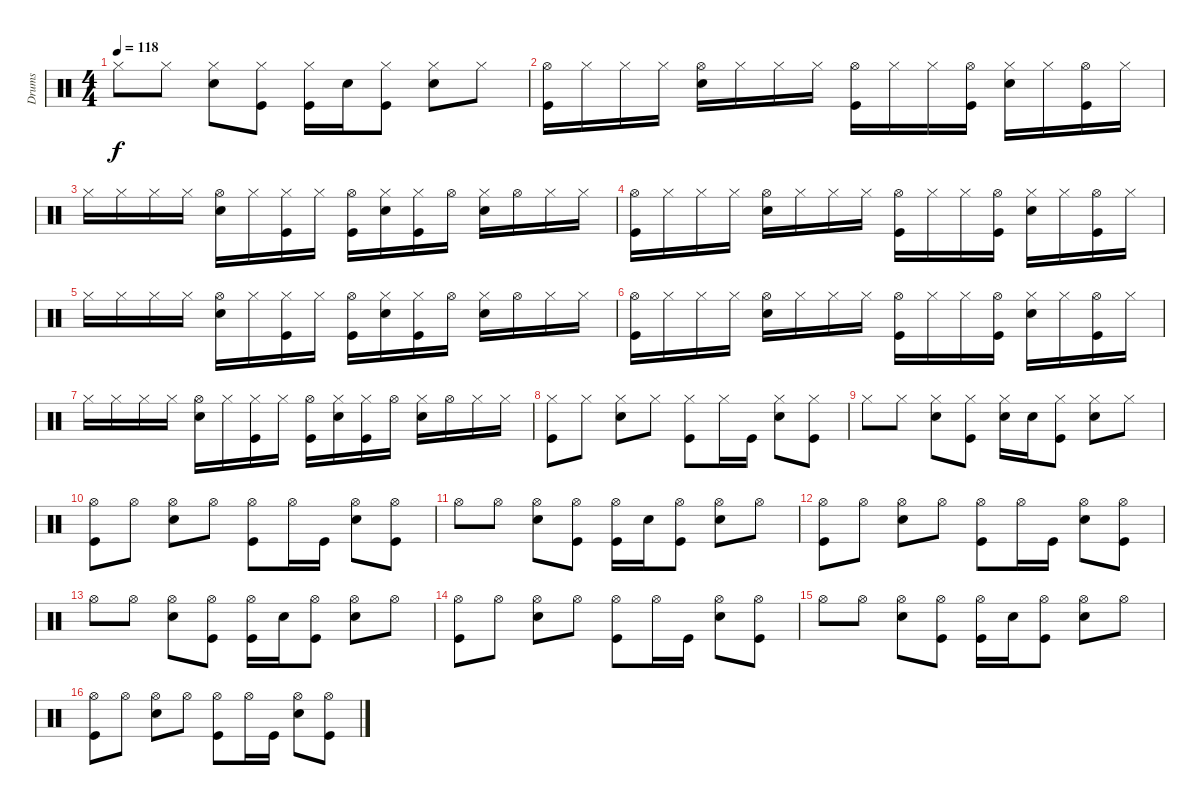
\track ("Drums" "Drums") {instrument percussion}
\staff {score}
\articulation defaults
\ts (4 4)
\tempo 118
\clef neutral
\ks c "Hi-Hat (closed)".8{dy f} "Hi-Hat (closed)".8
("Hi-Hat (closed)" "Snare (hit) 2").8 ("Hi-Hat (closed)" "Kick (hit)").8 ("Hi-Hat (closed)" "Kick (hit)").16 "Snare (hit) 2".16 ("Hi-Hat (closed)" "Kick (hit)").8 ("Hi-Hat (closed)" "Snare (hit) 2").8 "Hi-Hat (closed)".8 |
("Hi-Hat (open)" "Kick (hit)").16 "Hi-Hat (closed)".16 "Hi-Hat (closed)".16 "Hi-Hat (closed)".16 ("Hi-Hat (open)" "Snare (hit) 2").16 "Hi-Hat (closed)".16 "Hi-Hat (closed)".16 "Hi-Hat (closed)".16 ("Hi-Hat (open)" "Kick (hit)").16 "Hi-Hat (closed)".16 "Hi-Hat (closed)".16 ("Hi-Hat (open)" "Kick (hit)").16 ("Hi-Hat (closed)" "Snare (hit) 2").16 "Hi-Hat (closed)".16 ("Hi-Hat (open)" "Kick (hit)").16 "Hi-Hat (closed)".16 |
"Hi-Hat (closed)".16 "Hi-Hat (closed)".16 "Hi-Hat (closed)".16 "Hi-Hat (closed)".16 ("Hi-Hat (open)" "Snare (hit) 2").16 "Hi-Hat (closed)".16 ("Hi-Hat (closed)" "Kick (hit)").16 "Hi-Hat (closed)".16 ("Hi-Hat (open)" "Kick (hit)").16 ("Hi-Hat (closed)" "Snare (hit) 2").16 ("Hi-Hat (closed)" "Kick (hit)").16 "Hi-Hat (open)".16 ("Hi-Hat (closed)" "Snare (hit) 2").16 "Hi-Hat (open)".16 "Hi-Hat (closed)".16 "Hi-Hat (closed)".16 |
("Hi-Hat (open)" "Kick (hit)").16 "Hi-Hat (closed)".16 "Hi-Hat (closed)".16 "Hi-Hat (closed)".16 ("Hi-Hat (open)" "Snare (hit) 2").16 "Hi-Hat (closed)".16 "Hi-Hat (closed)".16 "Hi-Hat (closed)".16 ("Hi-Hat (open)" "Kick (hit)").16 "Hi-Hat (closed)".16 "Hi-Hat (closed)".16 ("Hi-Hat (open)" "Kick (hit)").16 ("Hi-Hat (closed)" "Snare (hit) 2").16 "Hi-Hat (closed)".16 ("Hi-Hat (open)" "Kick (hit)").16 "Hi-Hat (closed)".16 |
"Hi-Hat (closed)".16 "Hi-Hat (closed)".16 "Hi-Hat (closed)".16 "Hi-Hat (closed)".16 ("Hi-Hat (open)" "Snare (hit) 2").16 "Hi-Hat (closed)".16 ("Hi-Hat (closed)" "Kick (hit)").16 "Hi-Hat (closed)".16 ("Hi-Hat (open)" "Kick (hit)").16 ("Hi-Hat (closed)" "Snare (hit) 2").16 ("Hi-Hat (closed)" "Kick (hit)").16 "Hi-Hat (open)".16 ("Hi-Hat (closed)" "Snare (hit) 2").16 "Hi-Hat (open)".16 "Hi-Hat (closed)".16 "Hi-Hat (closed)".16 |
("Hi-Hat (open)" "Kick (hit)").16 "Hi-Hat (closed)".16 "Hi-Hat (closed)".16 "Hi-Hat (closed)".16 ("Hi-Hat (open)" "Snare (hit) 2").16 "Hi-Hat (closed)".16 "Hi-Hat (closed)".16 "Hi-Hat (closed)".16 ("Hi-Hat (open)" "Kick (hit)").16 "Hi-Hat (closed)".16 "Hi-Hat (closed)".16 ("Hi-Hat (open)" "Kick (hit)").16 ("Hi-Hat (closed)" "Snare (hit) 2").16 "Hi-Hat (closed)".16 ("Hi-Hat (open)" "Kick (hit)").16 "Hi-Hat (closed)".16 |
"Hi-Hat (closed)".16 "Hi-Hat (closed)".16 "Hi-Hat (closed)".16 "Hi-Hat (closed)".16 ("Hi-Hat (open)" "Snare (hit) 2").16 "Hi-Hat (closed)".16 ("Hi-Hat (closed)" "Kick (hit)").16 "Hi-Hat (closed)".16 ("Hi-Hat (open)" "Kick (hit)").16 ("Hi-Hat (closed)" "Snare (hit) 2").16 ("Hi-Hat (closed)" "Kick (hit)").16 "Hi-Hat (open)".16 ("Hi-Hat (closed)" "Snare (hit) 2").16 "Hi-Hat (open)".16 "Hi-Hat (closed)".16 "Hi-Hat (closed)".16 |
("Hi-Hat (closed)" "Kick (hit)").8 "Hi-Hat (closed)".8 ("Hi-Hat (closed)" "Snare (hit) 2").8 "Hi-Hat (closed)".8 ("Hi-Hat (closed)" "Kick (hit)").8 "Hi-Hat (closed)".16 "Kick (hit)".16 ("Hi-Hat (closed)" "Snare (hit) 2").8 ("Hi-Hat (closed)" "Kick (hit)").8 |
"Hi-Hat (closed)".8 "Hi-Hat (closed)".8 ("Hi-Hat (closed)" "Snare (hit) 2").8 ("Hi-Hat (closed)" "Kick (hit)").8 ("Hi-Hat (closed)" "Snare (hit) 2").16 "Snare (hit) 2".16 ("Hi-Hat (closed)" "Kick (hit)").8 ("Hi-Hat (closed)" "Snare (hit) 2").8 "Hi-Hat (closed)".8 |
("Hi-Hat (open)" "Kick (hit)").8 "Hi-Hat (open)".8 ("Hi-Hat (open)" "Snare (hit) 2").8 "Hi-Hat (open)".8 ("Hi-Hat (open)" "Kick (hit)").8 "Hi-Hat (open)".16 "Kick (hit)".16 ("Hi-Hat (open)" "Snare (hit) 2").8 ("Hi-Hat (open)" "Kick (hit)").8 |
"Hi-Hat (open)".8 "Hi-Hat (open)".8 ("Hi-Hat (open)" "Snare (hit) 2").8 ("Hi-Hat (open)" "Kick (hit)").8 ("Hi-Hat (open)" "Kick (hit)").16 "Snare (hit) 2".16 ("Hi-Hat (open)" "Kick (hit)").8 ("Hi-Hat (open)" "Snare (hit) 2").8 "Hi-Hat (open)".8 |
("Hi-Hat (open)" "Kick (hit)").8 "Hi-Hat (open)".8 ("Hi-Hat (open)" "Snare (hit) 2").8 "Hi-Hat (open)".8 ("Hi-Hat (open)" "Kick (hit)").8 "Hi-Hat (open)".16 "Kick (hit)".16 ("Hi-Hat (open)" "Snare (hit) 2").8 ("Hi-Hat (open)" "Kick (hit)").8 |
"Hi-Hat (open)".8 "Hi-Hat (open)".8 ("Hi-Hat (open)" "Snare (hit) 2").8 ("Hi-Hat (open)" "Kick (hit)").8 ("Hi-Hat (open)" "Kick (hit)").16 "Snare (hit) 2".16 ("Hi-Hat (open)" "Kick (hit)").8 ("Hi-Hat (open)" "Snare (hit) 2").8 "Hi-Hat (open)".8 |
("Hi-Hat (open)" "Kick (hit)").8 "Hi-Hat (open)".8 ("Hi-Hat (open)" "Snare (hit) 2").8 "Hi-Hat (open)".8 ("Hi-Hat (open)" "Kick (hit)").8 "Hi-Hat (open)".16 "Kick (hit)".16 ("Hi-Hat (open)" "Snare (hit) 2").8 ("Hi-Hat (open)" "Kick (hit)").8 |
"Hi-Hat (open)".8 "Hi-Hat (open)".8 ("Hi-Hat (open)" "Snare (hit) 2").8 ("Hi-Hat (open)" "Kick (hit)").8 ("Hi-Hat (open)" "Kick (hit)").16 "Snare (hit) 2".16 ("Hi-Hat (open)" "Kick (hit)").8 ("Hi-Hat (open)" "Snare (hit) 2").8 "Hi-Hat (open)".8 |
("Hi-Hat (open)" "Kick (hit)").8 "Hi-Hat (open)".8 ("Hi-Hat (open)" "Snare (hit) 2").8 "Hi-Hat (open)".8 ("Hi-Hat (open)" "Kick (hit)").8 "Hi-Hat (open)".16 "Kick (hit)".16 ("Hi-Hat (open)" "Snare (hit) 2").8 ("Hi-Hat (open)" "Kick (hit)").8
